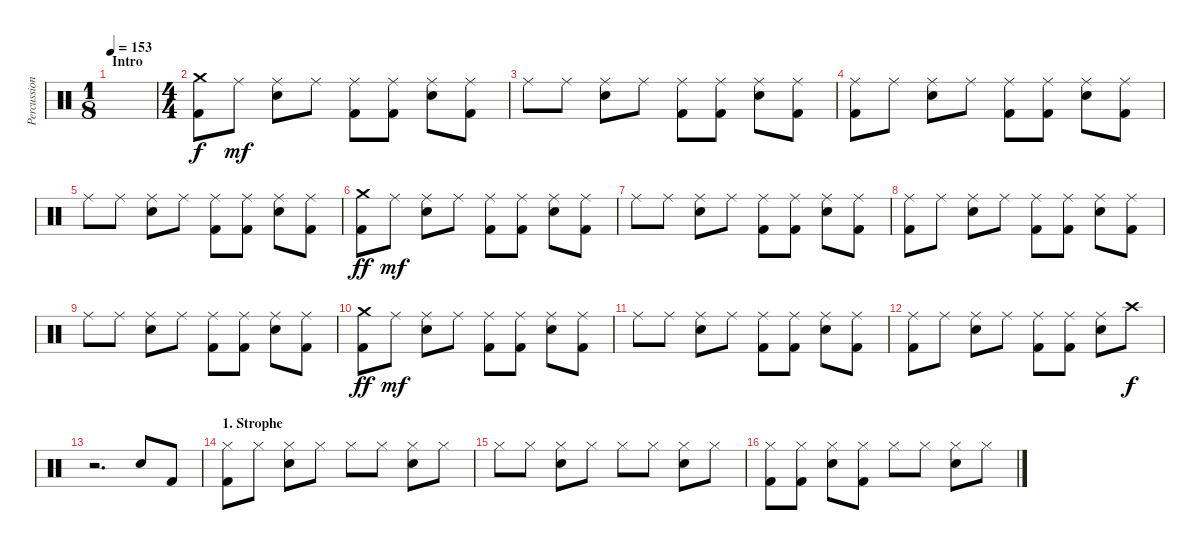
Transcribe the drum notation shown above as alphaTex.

\track ("Percussion" "Percussion") {instrument percussion}
\staff {score}
\articulation defaults
\ts (1 8)
\section ("" "Intro")
\tempo 153
\clef neutral
\ks c
|
\ts (4 4)
("Crash medium (hit)" "Kick (hit) 2").8 "Ride (middle)".8{dy mf} ("Ride (middle)" "Electric Snare (hit)").8 "Ride (middle)".8 ("Ride (middle)" "Kick (hit) 2").8 ("Ride (middle)" "Kick (hit) 2").8 ("Ride (middle)" "Electric Snare (hit)").8 ("Ride (middle)" "Kick (hit) 2").8 |
"Ride (middle)".8 "Ride (middle)".8 ("Ride (middle)" "Electric Snare (hit)").8 "Ride (middle)".8 ("Ride (middle)" "Kick (hit) 2").8 ("Ride (middle)" "Kick (hit) 2").8 ("Ride (middle)" "Electric Snare (hit)").8 ("Ride (middle)" "Kick (hit) 2").8 |
("Ride (middle)" "Kick (hit) 2").8 "Ride (middle)".8 ("Ride (middle)" "Electric Snare (hit)").8 "Ride (middle)".8 ("Ride (middle)" "Kick (hit) 2").8 ("Ride (middle)" "Kick (hit) 2").8 ("Ride (middle)" "Electric Snare (hit)").8 ("Ride (middle)" "Kick (hit) 2").8 |
"Ride (middle)".8 "Ride (middle)".8 ("Ride (middle)" "Electric Snare (hit)").8 "Ride (middle)".8 ("Ride (middle)" "Kick (hit) 2").8 ("Ride (middle)" "Kick (hit) 2").8 ("Ride (middle)" "Electric Snare (hit)").8 ("Ride (middle)" "Kick (hit) 2").8 |
("Crash medium (hit)" "Kick (hit) 2").8{dy ff} "Ride (middle)".8{dy mf} ("Ride (middle)" "Electric Snare (hit)").8 "Ride (middle)".8 ("Ride (middle)" "Kick (hit) 2").8 ("Ride (middle)" "Kick (hit) 2").8 ("Ride (middle)" "Electric Snare (hit)").8 ("Ride (middle)" "Kick (hit) 2").8 |
"Ride (middle)".8 "Ride (middle)".8 ("Ride (middle)" "Electric Snare (hit)").8 "Ride (middle)".8 ("Ride (middle)" "Kick (hit) 2").8 ("Ride (middle)" "Kick (hit) 2").8 ("Ride (middle)" "Electric Snare (hit)").8 ("Ride (middle)" "Kick (hit) 2").8 |
("Ride (middle)" "Kick (hit) 2").8 "Ride (middle)".8 ("Ride (middle)" "Electric Snare (hit)").8 "Ride (middle)".8 ("Ride (middle)" "Kick (hit) 2").8 ("Ride (middle)" "Kick (hit) 2").8 ("Ride (middle)" "Electric Snare (hit)").8 ("Ride (middle)" "Kick (hit) 2").8 |
"Ride (middle)".8 "Ride (middle)".8 ("Ride (middle)" "Electric Snare (hit)").8 "Ride (middle)".8 ("Ride (middle)" "Kick (hit) 2").8 ("Ride (middle)" "Kick (hit) 2").8 ("Ride (middle)" "Electric Snare (hit)").8 ("Ride (middle)" "Kick (hit) 2").8 |
("Crash medium (hit)" "Kick (hit) 2").8{dy ff} "Ride (middle)".8{dy mf} ("Ride (middle)" "Electric Snare (hit)").8 "Ride (middle)".8 ("Ride (middle)" "Kick (hit) 2").8 ("Ride (middle)" "Kick (hit) 2").8 ("Ride (middle)" "Electric Snare (hit)").8 ("Ride (middle)" "Kick (hit) 2").8 |
"Ride (middle)".8 "Ride (middle)".8 ("Ride (middle)" "Electric Snare (hit)").8 "Ride (middle)".8 ("Ride (middle)" "Kick (hit) 2").8 ("Ride (middle)" "Kick (hit) 2").8 ("Ride (middle)" "Electric Snare (hit)").8 ("Ride (middle)" "Kick (hit) 2").8 |
("Ride (middle)" "Kick (hit) 2").8 "Ride (middle)".8 ("Ride (middle)" "Electric Snare (hit)").8 "Ride (middle)".8 ("Ride (middle)" "Kick (hit) 2").8 ("Ride (middle)" "Kick (hit) 2").8 ("Ride (middle)" "Electric Snare (hit)").8 "Crash high (hit)".8{dy f} |
r.2{d} "Electric Snare (hit)".8 "Kick (hit) 2".8 |
\section ("" "1. Strophe")
("Hi-Hat (closed)" "Kick (hit) 2").8 "Hi-Hat (closed)".8 ("Hi-Hat (closed)" "Electric Snare (hit)").8 "Hi-Hat (closed)".8 "Hi-Hat (closed)".8 "Hi-Hat (closed)".8 ("Hi-Hat (closed)" "Electric Snare (hit)").8 "Hi-Hat (closed)".8 |
"Hi-Hat (closed)".8 "Hi-Hat (closed)".8 ("Hi-Hat (closed)" "Electric Snare (hit)").8 "Hi-Hat (closed)".8 "Hi-Hat (closed)".8 "Hi-Hat (closed)".8 ("Hi-Hat (closed)" "Electric Snare (hit)").8 "Hi-Hat (closed)".8 |
("Hi-Hat (closed)" "Kick (hit) 2").8 ("Hi-Hat (closed)" "Kick (hit) 2").8 ("Hi-Hat (closed)" "Electric Snare (hit)").8 ("Hi-Hat (closed)" "Kick (hit) 2").8 "Hi-Hat (closed)".8 "Hi-Hat (closed)".8 ("Hi-Hat (closed)" "Electric Snare (hit)").8 "Hi-Hat (closed)".8
